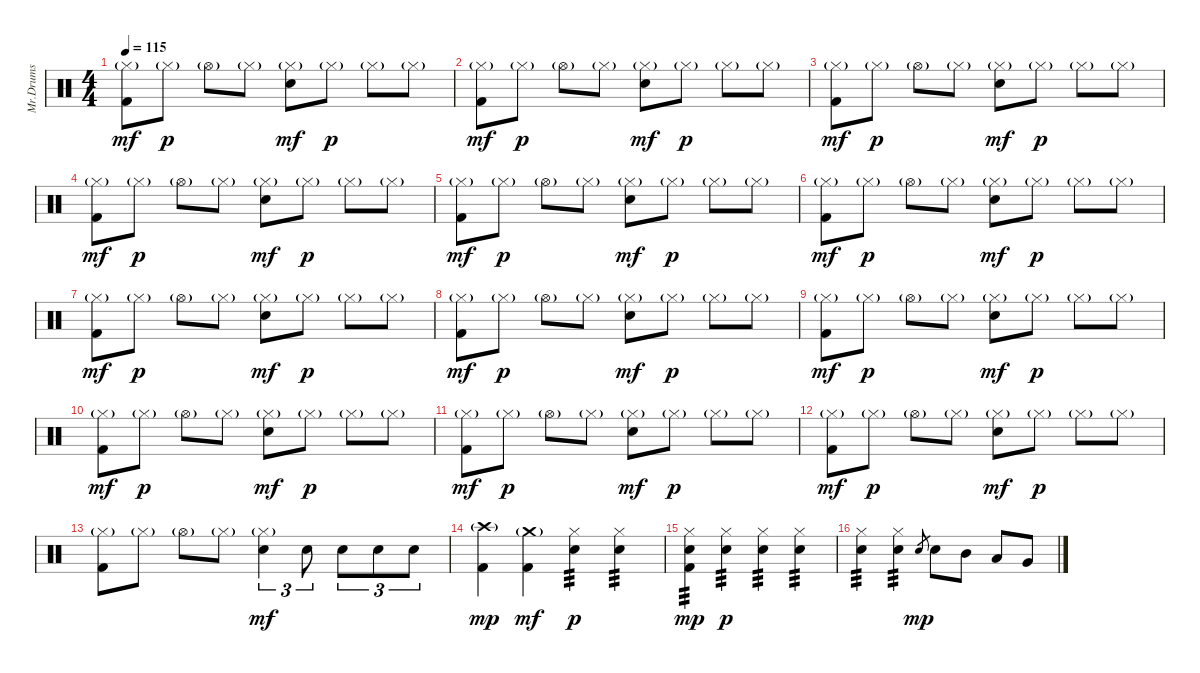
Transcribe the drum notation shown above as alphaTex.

\track ("Mr.Drums" "Mr.Drums") {instrument percussion}
\staff {score}
\articulation defaults
\ts (4 4)
\tempo 115
\clef neutral
\ks c
("Hi-Hat (closed)"{g} "Kick (hit) 2").8{dy mf} "Hi-Hat (closed)"{g}.8{dy p} "Hi-Hat (open)"{g}.8 "Hi-Hat (closed)"{g}.8 ("Hi-Hat (closed)"{g} "Electric Snare (hit)").8{dy mf} "Hi-Hat (closed)"{g}.8{dy p} "Hi-Hat (closed)"{g}.8 "Hi-Hat (closed)"{g}.8 |
("Hi-Hat (closed)"{g} "Kick (hit) 2").8{dy mf} "Hi-Hat (closed)"{g}.8{dy p} "Hi-Hat (open)"{g}.8 "Hi-Hat (closed)"{g}.8 ("Hi-Hat (closed)"{g} "Electric Snare (hit)").8{dy mf} "Hi-Hat (closed)"{g}.8{dy p} "Hi-Hat (closed)"{g}.8 "Hi-Hat (closed)"{g}.8 |
("Hi-Hat (closed)"{g} "Kick (hit) 2").8{dy mf} "Hi-Hat (closed)"{g}.8{dy p} "Hi-Hat (open)"{g}.8 "Hi-Hat (closed)"{g}.8 ("Hi-Hat (closed)"{g} "Electric Snare (hit)").8{dy mf} "Hi-Hat (closed)"{g}.8{dy p} "Hi-Hat (closed)"{g}.8 "Hi-Hat (closed)"{g}.8 |
("Hi-Hat (closed)"{g} "Kick (hit) 2").8{dy mf} "Hi-Hat (closed)"{g}.8{dy p} "Hi-Hat (open)"{g}.8 "Hi-Hat (closed)"{g}.8 ("Hi-Hat (closed)"{g} "Electric Snare (hit)").8{dy mf} "Hi-Hat (closed)"{g}.8{dy p} "Hi-Hat (closed)"{g}.8 "Hi-Hat (closed)"{g}.8 |
("Hi-Hat (closed)"{g} "Kick (hit) 2").8{dy mf} "Hi-Hat (closed)"{g}.8{dy p} "Hi-Hat (open)"{g}.8 "Hi-Hat (closed)"{g}.8 ("Hi-Hat (closed)"{g} "Electric Snare (hit)").8{dy mf} "Hi-Hat (closed)"{g}.8{dy p} "Hi-Hat (closed)"{g}.8 "Hi-Hat (closed)"{g}.8 |
("Hi-Hat (closed)"{g} "Kick (hit) 2").8{dy mf} "Hi-Hat (closed)"{g}.8{dy p} "Hi-Hat (open)"{g}.8 "Hi-Hat (closed)"{g}.8 ("Hi-Hat (closed)"{g} "Electric Snare (hit)").8{dy mf} "Hi-Hat (closed)"{g}.8{dy p} "Hi-Hat (closed)"{g}.8 "Hi-Hat (closed)"{g}.8 |
("Hi-Hat (closed)"{g} "Kick (hit) 2").8{dy mf} "Hi-Hat (closed)"{g}.8{dy p} "Hi-Hat (open)"{g}.8 "Hi-Hat (closed)"{g}.8 ("Hi-Hat (closed)"{g} "Electric Snare (hit)").8{dy mf} "Hi-Hat (closed)"{g}.8{dy p} "Hi-Hat (closed)"{g}.8 "Hi-Hat (closed)"{g}.8 |
("Hi-Hat (closed)"{g} "Kick (hit) 2").8{dy mf} "Hi-Hat (closed)"{g}.8{dy p} "Hi-Hat (open)"{g}.8 "Hi-Hat (closed)"{g}.8 ("Hi-Hat (closed)"{g} "Electric Snare (hit)").8{dy mf} "Hi-Hat (closed)"{g}.8{dy p} "Hi-Hat (closed)"{g}.8 "Hi-Hat (closed)"{g}.8 |
("Hi-Hat (closed)"{g} "Kick (hit) 2").8{dy mf} "Hi-Hat (closed)"{g}.8{dy p} "Hi-Hat (open)"{g}.8 "Hi-Hat (closed)"{g}.8 ("Hi-Hat (closed)"{g} "Electric Snare (hit)").8{dy mf} "Hi-Hat (closed)"{g}.8{dy p} "Hi-Hat (closed)"{g}.8 "Hi-Hat (closed)"{g}.8 |
("Hi-Hat (closed)"{g} "Kick (hit) 2").8{dy mf} "Hi-Hat (closed)"{g}.8{dy p} "Hi-Hat (open)"{g}.8 "Hi-Hat (closed)"{g}.8 ("Hi-Hat (closed)"{g} "Electric Snare (hit)").8{dy mf} "Hi-Hat (closed)"{g}.8{dy p} "Hi-Hat (closed)"{g}.8 "Hi-Hat (closed)"{g}.8 |
("Hi-Hat (closed)"{g} "Kick (hit) 2").8{dy mf} "Hi-Hat (closed)"{g}.8{dy p} "Hi-Hat (open)"{g}.8 "Hi-Hat (closed)"{g}.8 ("Hi-Hat (closed)"{g} "Electric Snare (hit)").8{dy mf} "Hi-Hat (closed)"{g}.8{dy p} "Hi-Hat (closed)"{g}.8 "Hi-Hat (closed)"{g}.8 |
("Hi-Hat (closed)"{g} "Kick (hit) 2").8{dy mf} "Hi-Hat (closed)"{g}.8{dy p} "Hi-Hat (open)"{g}.8 "Hi-Hat (closed)"{g}.8 ("Hi-Hat (closed)"{g} "Electric Snare (hit)").8{dy mf} "Hi-Hat (closed)"{g}.8{dy p} "Hi-Hat (closed)"{g}.8 "Hi-Hat (closed)"{g}.8 |
("Hi-Hat (closed)"{g} "Kick (hit) 2").8 "Hi-Hat (closed)"{g}.8 "Hi-Hat (open)"{g}.8 "Hi-Hat (closed)"{g}.8 ("Hi-Hat (closed)"{g} "Electric Snare (hit)").4{tu (3 2) dy mf} "Electric Snare (hit)".8{tu (3 2)} "Electric Snare (hit)".8{tu (3 2)} "Electric Snare (hit)".8{tu (3 2)} "Electric Snare (hit)".8{tu (3 2)} |
("Crash high (hit)"{g} "Kick (hit) 2").4{dy mp} ("Crash medium (hit)"{g} "Kick (hit) 2").4{dy mf} ("Hi-Hat (closed)" "Electric Snare (hit)").4{tp 3 dy p} ("Hi-Hat (closed)" "Electric Snare (hit)").4{tp 3} |
("Hi-Hat (closed)" "Electric Snare (hit)" "Kick (hit) 2").4{tp 3 dy mp} ("Hi-Hat (closed)" "Electric Snare (hit)").4{tp 3 dy p} ("Hi-Hat (closed)" "Electric Snare (hit)").4{tp 3} ("Hi-Hat (closed)" "Electric Snare (hit)").4{tp 3} |
("Hi-Hat (closed)" "Electric Snare (hit)").4{tp 3} ("Hi-Hat (closed)" "Electric Snare (hit)").4{tp 3} "Electric Snare (hit)".8{gr dy mp} "Electric Snare (hit)".8 "Mid Tom (hit)".8 "Low Tom (hit)".8 "Very Low Tom (hit)".8
